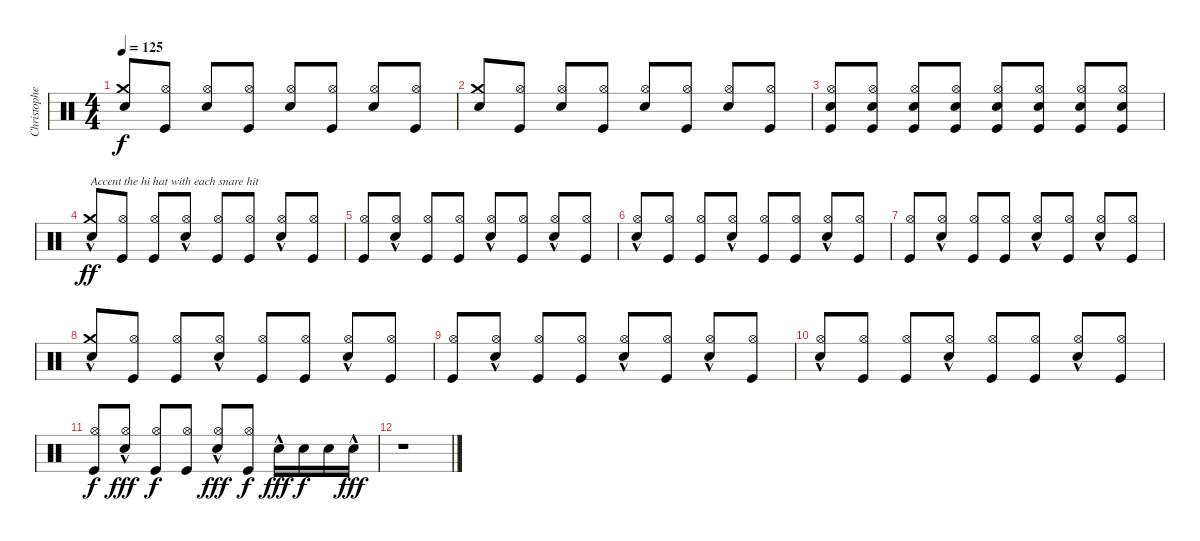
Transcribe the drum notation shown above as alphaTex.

\track ("Christopher Guanlao - Drums" "Christophe") {instrument percussion}
\staff {score}
\articulation defaults
\ts (4 4)
\tempo 125
\clef neutral
\ks c
("Crash medium (hit)" "Electric Snare (hit)").8{dy f beam Up} ("Hi-Hat (open)" "Kick (hit)").8{beam Up} ("Hi-Hat (open)" "Electric Snare (hit)").8{beam Up} ("Hi-Hat (open)" "Kick (hit)").8{beam Up} ("Hi-Hat (open)" "Electric Snare (hit)").8{beam Up} ("Hi-Hat (open)" "Kick (hit)").8{beam Up} ("Hi-Hat (open)" "Electric Snare (hit)").8{beam Up} ("Hi-Hat (open)" "Kick (hit)").8{beam Up} |
("Crash medium (hit)" "Electric Snare (hit)").8{beam Up} ("Hi-Hat (open)" "Kick (hit)").8{beam Up} ("Hi-Hat (open)" "Electric Snare (hit)").8{beam Up} ("Hi-Hat (open)" "Kick (hit)").8{beam Up} ("Hi-Hat (open)" "Electric Snare (hit)").8{beam Up} ("Hi-Hat (open)" "Kick (hit)").8{beam Up} ("Hi-Hat (open)" "Electric Snare (hit)").8{beam Up} ("Hi-Hat (open)" "Kick (hit)").8{beam Up} |
("Hi-Hat (open)" "Electric Snare (hit)" "Kick (hit)").8{beam Up} ("Hi-Hat (open)" "Electric Snare (hit)" "Kick (hit)").8{beam Up} ("Hi-Hat (open)" "Electric Snare (hit)" "Kick (hit)").8{beam Up} ("Hi-Hat (open)" "Electric Snare (hit)" "Kick (hit)").8{beam Up} ("Hi-Hat (open)" "Electric Snare (hit)" "Kick (hit)").8{beam Up} ("Hi-Hat (open)" "Electric Snare (hit)" "Kick (hit)").8{beam Up} ("Hi-Hat (open)" "Electric Snare (hit)" "Kick (hit)").8{beam Up} ("Hi-Hat (open)" "Electric Snare (hit)" "Kick (hit)").8{beam Up} |
("Crash medium (hit)"{hac} "Electric Snare (hit)").8{txt "Accent the hi hat with each snare hit" dy ff volume 16 beam Up} ("Hi-Hat (open)" "Kick (hit)").8{beam Up} ("Hi-Hat (open)" "Kick (hit)").8{beam Up} ("Hi-Hat (open)"{hac} "Electric Snare (hit)").8{beam Up} ("Hi-Hat (open)" "Kick (hit)").8{beam Up} ("Hi-Hat (open)" "Kick (hit)").8{beam Up} ("Hi-Hat (open)"{hac} "Electric Snare (hit)").8{beam Up} ("Hi-Hat (open)" "Kick (hit)").8{beam Up} |
("Hi-Hat (open)" "Kick (hit)").8{beam Up} ("Hi-Hat (open)"{hac} "Electric Snare (hit)").8{beam Up} ("Hi-Hat (open)" "Kick (hit)").8{beam Up} ("Hi-Hat (open)" "Kick (hit)").8{beam Up} ("Hi-Hat (open)"{hac} "Electric Snare (hit)").8{beam Up} ("Hi-Hat (open)" "Kick (hit)").8{beam Up} ("Hi-Hat (open)"{hac} "Electric Snare (hit)").8{beam Up} ("Hi-Hat (open)" "Kick (hit)").8{beam Up} |
("Hi-Hat (open)"{hac} "Electric Snare (hit)").8{beam Up} ("Hi-Hat (open)" "Kick (hit)").8{beam Up} ("Hi-Hat (open)" "Kick (hit)").8{beam Up} ("Hi-Hat (open)"{hac} "Electric Snare (hit)").8{beam Up} ("Hi-Hat (open)" "Kick (hit)").8{beam Up} ("Hi-Hat (open)" "Kick (hit)").8{beam Up} ("Hi-Hat (open)"{hac} "Electric Snare (hit)").8{beam Up} ("Hi-Hat (open)" "Kick (hit)").8{beam Up} |
("Hi-Hat (open)" "Kick (hit)").8{beam Up} ("Hi-Hat (open)"{hac} "Electric Snare (hit)").8{beam Up} ("Hi-Hat (open)" "Kick (hit)").8{beam Up} ("Hi-Hat (open)" "Kick (hit)").8{beam Up} ("Hi-Hat (open)"{hac} "Electric Snare (hit)").8{beam Up} ("Hi-Hat (open)" "Kick (hit)").8{beam Up} ("Hi-Hat (open)"{hac} "Electric Snare (hit)").8{beam Up} ("Hi-Hat (open)" "Kick (hit)").8{beam Up} |
("Crash medium (hit)"{hac} "Electric Snare (hit)").8{beam Up} ("Hi-Hat (open)" "Kick (hit)").8{beam Up} ("Hi-Hat (open)" "Kick (hit)").8{beam Up} ("Hi-Hat (open)"{hac} "Electric Snare (hit)").8{beam Up} ("Hi-Hat (open)" "Kick (hit)").8{beam Up} ("Hi-Hat (open)" "Kick (hit)").8{beam Up} ("Hi-Hat (open)"{hac} "Electric Snare (hit)").8{beam Up} ("Hi-Hat (open)" "Kick (hit)").8{beam Up} |
("Hi-Hat (open)" "Kick (hit)").8{beam Up} ("Hi-Hat (open)"{hac} "Electric Snare (hit)").8{beam Up} ("Hi-Hat (open)" "Kick (hit)").8{beam Up} ("Hi-Hat (open)" "Kick (hit)").8{beam Up} ("Hi-Hat (open)"{hac} "Electric Snare (hit)").8{beam Up} ("Hi-Hat (open)" "Kick (hit)").8{beam Up} ("Hi-Hat (open)"{hac} "Electric Snare (hit)").8{beam Up} ("Hi-Hat (open)" "Kick (hit)").8{beam Up} |
("Hi-Hat (open)"{hac} "Electric Snare (hit)").8{beam Up} ("Hi-Hat (open)" "Kick (hit)").8{beam Up} ("Hi-Hat (open)" "Kick (hit)").8{beam Up} ("Hi-Hat (open)"{hac} "Electric Snare (hit)").8{beam Up} ("Hi-Hat (open)" "Kick (hit)").8{beam Up} ("Hi-Hat (open)" "Kick (hit)").8{beam Up} ("Hi-Hat (open)"{hac} "Electric Snare (hit)").8{beam Up} ("Hi-Hat (open)" "Kick (hit)").8{beam Up} |
("Hi-Hat (open)" "Kick (hit)").8{dy f beam Up} ("Hi-Hat (open)"{hac} "Electric Snare (hit)").8{dy fff beam Up} ("Hi-Hat (open)" "Kick (hit)").8{dy f beam Up} ("Hi-Hat (open)" "Kick (hit)").8{beam Up} ("Hi-Hat (open)"{hac} "Electric Snare (hit)").8{dy fff beam Up} ("Hi-Hat (open)" "Kick (hit)").8{dy f beam Up} "Electric Snare (hit)"{hac}.16{dy fff} "Electric Snare (hit)".16{dy f} "Electric Snare (hit)".16 "Electric Snare (hit)"{hac}.16{dy fff} |
r.1
